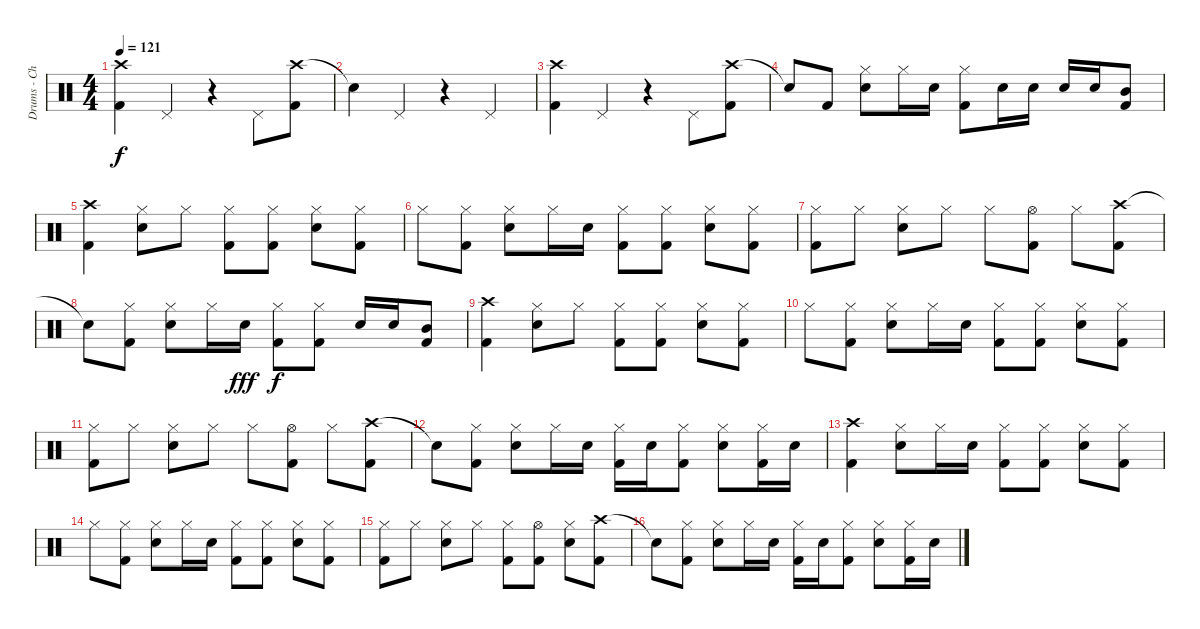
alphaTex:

\track ("Drums - Chad" "Drums - Ch") {instrument percussion}
\staff {score}
\articulation defaults
\ts (4 4)
\tempo 121
\clef neutral
\ks c
("Crash high (hit)" "Kick (hit) 2").4{dy f} "Pedal Hi-Hat (hit)".4 r.4 "Pedal Hi-Hat (hit)".8 ("Crash high (hit)" "Kick (hit) 2").8 |
"Snare (hit)"{t}.4 "Pedal Hi-Hat (hit)".4 r.4 "Pedal Hi-Hat (hit)".4 |
("Crash high (hit)" "Kick (hit) 2").4 "Pedal Hi-Hat (hit)".4 r.4 "Pedal Hi-Hat (hit)".8 ("Crash high (hit)" "Kick (hit) 2").8 |
"Snare (hit)"{t}.8 "Kick (hit) 2".8 ("Hi-Hat (closed)" "Electric Snare (hit)").8 "Hi-Hat (closed)".16 "Electric Snare (hit)".16 ("Hi-Hat (closed)" "Kick (hit) 2").8 "Electric Snare (hit)".16 "Electric Snare (hit)".16 "Electric Snare (hit)".16 "Electric Snare (hit)".16 ("Mid Tom (hit)" "Kick (hit) 2").8 |
("Crash high (hit)" "Kick (hit) 2").4 ("Hi-Hat (closed)" "Electric Snare (hit)").8 "Hi-Hat (closed)".8 ("Hi-Hat (closed)" "Kick (hit) 2").8 ("Hi-Hat (closed)" "Kick (hit) 2").8 ("Hi-Hat (closed)" "Electric Snare (hit)").8 ("Hi-Hat (closed)" "Kick (hit) 2").8 |
"Hi-Hat (closed)".8 ("Hi-Hat (closed)" "Kick (hit) 2").8 ("Hi-Hat (closed)" "Electric Snare (hit)").8 "Hi-Hat (closed)".16 "Electric Snare (hit)".16 ("Hi-Hat (closed)" "Kick (hit) 2").8 ("Hi-Hat (closed)" "Kick (hit) 2").8 ("Hi-Hat (closed)" "Electric Snare (hit)").8 ("Hi-Hat (closed)" "Kick (hit) 2").8 |
("Hi-Hat (closed)" "Kick (hit) 2").8 "Hi-Hat (closed)".8 ("Hi-Hat (closed)" "Electric Snare (hit)").8 "Hi-Hat (closed)".8 "Hi-Hat (closed)".8 ("Hi-Hat (open)" "Kick (hit) 2").8 "Hi-Hat (closed)".8 ("Crash high (hit)" "Kick (hit) 2").8 |
"Snare (hit)"{t}.8 ("Hi-Hat (closed)" "Kick (hit) 2").8 ("Hi-Hat (closed)" "Electric Snare (hit)").8 "Hi-Hat (closed)".16 "Electric Snare (hit)".16{dy fff} ("Hi-Hat (closed)" "Kick (hit) 2").8{dy f} ("Hi-Hat (closed)" "Kick (hit) 2").8 "Electric Snare (hit)".16 "Electric Snare (hit)".16 ("Mid Tom (hit)" "Kick (hit) 2").8 |
("Crash high (hit)" "Kick (hit) 2").4 ("Hi-Hat (closed)" "Electric Snare (hit)").8 "Hi-Hat (closed)".8 ("Hi-Hat (closed)" "Kick (hit) 2").8 ("Hi-Hat (closed)" "Kick (hit) 2").8 ("Hi-Hat (closed)" "Electric Snare (hit)").8 ("Hi-Hat (closed)" "Kick (hit) 2").8 |
"Hi-Hat (closed)".8 ("Hi-Hat (closed)" "Kick (hit) 2").8 ("Hi-Hat (closed)" "Electric Snare (hit)").8 "Hi-Hat (closed)".16 "Electric Snare (hit)".16 ("Hi-Hat (closed)" "Kick (hit) 2").8 ("Hi-Hat (closed)" "Kick (hit) 2").8 ("Hi-Hat (closed)" "Electric Snare (hit)").8 ("Hi-Hat (closed)" "Kick (hit) 2").8 |
("Hi-Hat (closed)" "Kick (hit) 2").8 "Hi-Hat (closed)".8 ("Hi-Hat (closed)" "Electric Snare (hit)").8 "Hi-Hat (closed)".8 "Hi-Hat (closed)".8 ("Hi-Hat (open)" "Kick (hit) 2").8 "Hi-Hat (closed)".8 ("Crash high (hit)" "Kick (hit) 2").8 |
"Snare (hit)"{t}.8 ("Hi-Hat (closed)" "Kick (hit) 2").8 ("Hi-Hat (closed)" "Electric Snare (hit)").8 "Hi-Hat (closed)".16 "Electric Snare (hit)".16 ("Hi-Hat (closed)" "Kick (hit) 2").16 "Electric Snare (hit)".16 ("Hi-Hat (closed)" "Kick (hit) 2").8 ("Hi-Hat (closed)" "Electric Snare (hit)").8 ("Hi-Hat (closed)" "Kick (hit) 2").16 "Electric Snare (hit)".16 |
("Crash high (hit)" "Kick (hit) 2").4 ("Hi-Hat (closed)" "Electric Snare (hit)").8 "Hi-Hat (closed)".16 "Electric Snare (hit)".16 ("Hi-Hat (closed)" "Kick (hit) 2").8 ("Hi-Hat (closed)" "Kick (hit) 2").8 ("Hi-Hat (closed)" "Electric Snare (hit)").8 ("Hi-Hat (closed)" "Kick (hit) 2").8 |
"Hi-Hat (closed)".8 ("Hi-Hat (closed)" "Kick (hit) 2").8 ("Hi-Hat (closed)" "Electric Snare (hit)").8 "Hi-Hat (closed)".16 "Electric Snare (hit)".16 ("Hi-Hat (closed)" "Kick (hit) 2").8 ("Hi-Hat (closed)" "Kick (hit) 2").8 ("Hi-Hat (closed)" "Electric Snare (hit)").8 ("Hi-Hat (closed)" "Kick (hit) 2").8 |
("Hi-Hat (closed)" "Kick (hit) 2").8 "Hi-Hat (closed)".8 ("Hi-Hat (closed)" "Electric Snare (hit)").8 "Hi-Hat (closed)".8 ("Hi-Hat (closed)" "Kick (hit) 2").8 ("Hi-Hat (open)" "Kick (hit) 2").8 ("Hi-Hat (closed)" "Electric Snare (hit)").8 ("Crash high (hit)" "Kick (hit) 2").8 |
"Snare (hit)"{t}.8 ("Hi-Hat (closed)" "Kick (hit) 2").8 ("Hi-Hat (closed)" "Electric Snare (hit)").8 "Hi-Hat (closed)".16 "Electric Snare (hit)".16 ("Hi-Hat (closed)" "Kick (hit) 2").16 "Electric Snare (hit)".16 ("Hi-Hat (closed)" "Kick (hit) 2").8 ("Hi-Hat (closed)" "Electric Snare (hit)").8 ("Hi-Hat (closed)" "Kick (hit) 2").16 "Electric Snare (hit)".16
